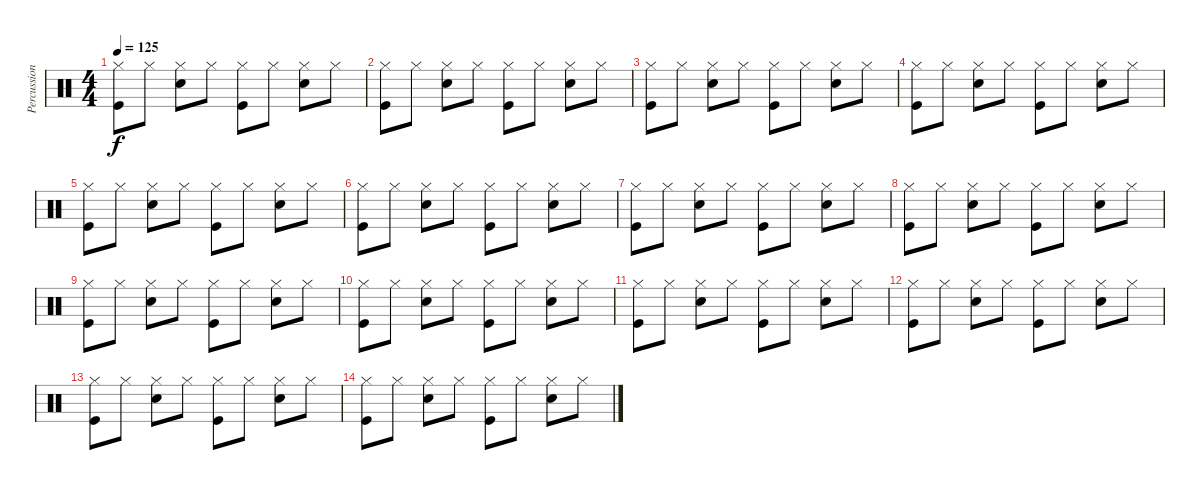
\track ("Percussion" "Percussion") {instrument percussion}
\staff {score}
\articulation defaults
\ts (4 4)
\tempo 125
\clef neutral
\ks c
("Hi-Hat (closed)" "Kick (hit)").8{dy f} "Hi-Hat (closed)".8 ("Snare (hit) 2" "Hi-Hat (closed)").8 "Hi-Hat (closed)".8 ("Hi-Hat (closed)" "Kick (hit)").8 "Hi-Hat (closed)".8 ("Snare (hit) 2" "Hi-Hat (closed)").8 "Hi-Hat (closed)".8 |
("Hi-Hat (closed)" "Kick (hit)").8 "Hi-Hat (closed)".8 ("Snare (hit) 2" "Hi-Hat (closed)").8 "Hi-Hat (closed)".8 ("Hi-Hat (closed)" "Kick (hit)").8 "Hi-Hat (closed)".8 ("Snare (hit) 2" "Hi-Hat (closed)").8 "Hi-Hat (closed)".8 |
("Hi-Hat (closed)" "Kick (hit)").8 "Hi-Hat (closed)".8 ("Snare (hit) 2" "Hi-Hat (closed)").8 "Hi-Hat (closed)".8 ("Hi-Hat (closed)" "Kick (hit)").8 "Hi-Hat (closed)".8 ("Snare (hit) 2" "Hi-Hat (closed)").8 "Hi-Hat (closed)".8 |
("Hi-Hat (closed)" "Kick (hit)").8 "Hi-Hat (closed)".8 ("Snare (hit) 2" "Hi-Hat (closed)").8 "Hi-Hat (closed)".8 ("Hi-Hat (closed)" "Kick (hit)").8 "Hi-Hat (closed)".8 ("Snare (hit) 2" "Hi-Hat (closed)").8 "Hi-Hat (closed)".8 |
("Hi-Hat (closed)" "Kick (hit)").8 "Hi-Hat (closed)".8 ("Snare (hit) 2" "Hi-Hat (closed)").8 "Hi-Hat (closed)".8 ("Hi-Hat (closed)" "Kick (hit)").8 "Hi-Hat (closed)".8 ("Snare (hit) 2" "Hi-Hat (closed)").8 "Hi-Hat (closed)".8 |
("Hi-Hat (closed)" "Kick (hit)").8 "Hi-Hat (closed)".8 ("Snare (hit) 2" "Hi-Hat (closed)").8 "Hi-Hat (closed)".8 ("Hi-Hat (closed)" "Kick (hit)").8 "Hi-Hat (closed)".8 ("Snare (hit) 2" "Hi-Hat (closed)").8 "Hi-Hat (closed)".8 |
("Hi-Hat (closed)" "Kick (hit)").8 "Hi-Hat (closed)".8 ("Snare (hit) 2" "Hi-Hat (closed)").8 "Hi-Hat (closed)".8 ("Hi-Hat (closed)" "Kick (hit)").8 "Hi-Hat (closed)".8 ("Snare (hit) 2" "Hi-Hat (closed)").8 "Hi-Hat (closed)".8 |
("Hi-Hat (closed)" "Kick (hit)").8 "Hi-Hat (closed)".8 ("Snare (hit) 2" "Hi-Hat (closed)").8 "Hi-Hat (closed)".8 ("Hi-Hat (closed)" "Kick (hit)").8 "Hi-Hat (closed)".8 ("Snare (hit) 2" "Hi-Hat (closed)").8 "Hi-Hat (closed)".8 |
("Hi-Hat (closed)" "Kick (hit)").8 "Hi-Hat (closed)".8 ("Snare (hit) 2" "Hi-Hat (closed)").8 "Hi-Hat (closed)".8 ("Hi-Hat (closed)" "Kick (hit)").8 "Hi-Hat (closed)".8 ("Snare (hit) 2" "Hi-Hat (closed)").8 "Hi-Hat (closed)".8 |
("Hi-Hat (closed)" "Kick (hit)").8 "Hi-Hat (closed)".8 ("Snare (hit) 2" "Hi-Hat (closed)").8 "Hi-Hat (closed)".8 ("Hi-Hat (closed)" "Kick (hit)").8 "Hi-Hat (closed)".8 ("Snare (hit) 2" "Hi-Hat (closed)").8 "Hi-Hat (closed)".8 |
("Hi-Hat (closed)" "Kick (hit)").8 "Hi-Hat (closed)".8 ("Snare (hit) 2" "Hi-Hat (closed)").8 "Hi-Hat (closed)".8 ("Hi-Hat (closed)" "Kick (hit)").8 "Hi-Hat (closed)".8 ("Snare (hit) 2" "Hi-Hat (closed)").8 "Hi-Hat (closed)".8 |
("Hi-Hat (closed)" "Kick (hit)").8 "Hi-Hat (closed)".8 ("Snare (hit) 2" "Hi-Hat (closed)").8 "Hi-Hat (closed)".8 ("Hi-Hat (closed)" "Kick (hit)").8 "Hi-Hat (closed)".8 ("Snare (hit) 2" "Hi-Hat (closed)").8 "Hi-Hat (closed)".8 |
("Hi-Hat (closed)" "Kick (hit)").8 "Hi-Hat (closed)".8 ("Snare (hit) 2" "Hi-Hat (closed)").8 "Hi-Hat (closed)".8 ("Hi-Hat (closed)" "Kick (hit)").8 "Hi-Hat (closed)".8 ("Snare (hit) 2" "Hi-Hat (closed)").8 "Hi-Hat (closed)".8 |
("Hi-Hat (closed)" "Kick (hit)").8 "Hi-Hat (closed)".8 ("Snare (hit) 2" "Hi-Hat (closed)").8 "Hi-Hat (closed)".8 ("Hi-Hat (closed)" "Kick (hit)").8 "Hi-Hat (closed)".8 ("Snare (hit) 2" "Hi-Hat (closed)").8 "Hi-Hat (closed)".8
